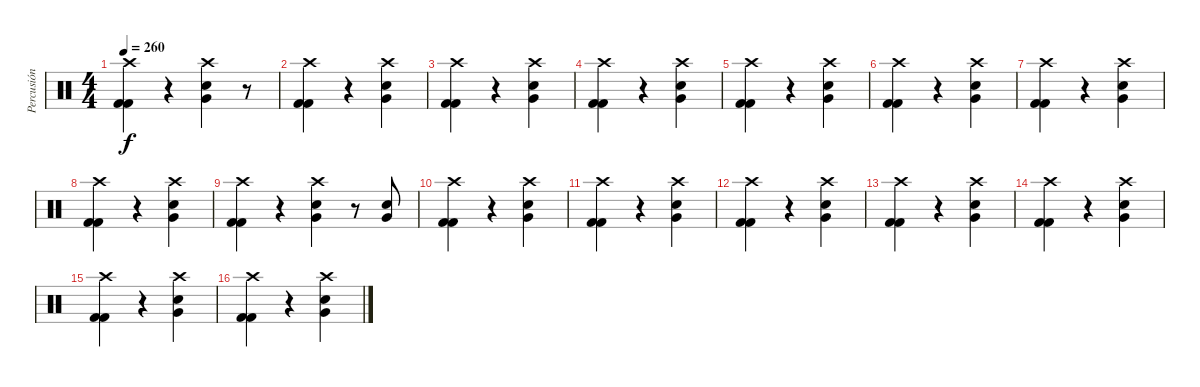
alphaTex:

\track ("Percusión" "Percusión") {instrument percussion}
\staff {score}
\articulation defaults
\ts (4 4)
\tempo 260
\clef neutral
\ks c
("Kick (hit) 2" "Kick (hit) 2" "Crash high (hit)").4{dy f} r.4 ("Very Low Tom (hit)" "Electric Snare (hit)" "Crash high (hit)").4 r.8 |
("Kick (hit) 2" "Kick (hit) 2" "Crash high (hit)").4 r.4 ("Very Low Tom (hit)" "Electric Snare (hit)" "Crash high (hit)").4 |
("Kick (hit) 2" "Kick (hit) 2" "Crash high (hit)").4 r.4 ("Very Low Tom (hit)" "Electric Snare (hit)" "Crash high (hit)").4 |
("Kick (hit) 2" "Kick (hit) 2" "Crash high (hit)").4 r.4 ("Very Low Tom (hit)" "Electric Snare (hit)" "Crash high (hit)").4 |
("Kick (hit) 2" "Kick (hit) 2" "Crash high (hit)").4 r.4 ("Very Low Tom (hit)" "Electric Snare (hit)" "Crash high (hit)").4 |
("Kick (hit) 2" "Kick (hit) 2" "Crash high (hit)").4 r.4 ("Very Low Tom (hit)" "Electric Snare (hit)" "Crash high (hit)").4 |
("Kick (hit) 2" "Kick (hit) 2" "Crash high (hit)").4 r.4 ("Very Low Tom (hit)" "Electric Snare (hit)" "Crash high (hit)").4 |
("Kick (hit) 2" "Kick (hit) 2" "Crash high (hit)").4 r.4 ("Very Low Tom (hit)" "Electric Snare (hit)" "Crash high (hit)").4 |
("Kick (hit) 2" "Kick (hit) 2" "Crash high (hit)").4 r.4 ("Very Low Tom (hit)" "Electric Snare (hit)" "Crash high (hit)").4 r.8 ("Very Low Tom (hit)" "Electric Snare (hit)").8 |
("Kick (hit) 2" "Kick (hit) 2" "Crash high (hit)").4 r.4 ("Very Low Tom (hit)" "Electric Snare (hit)" "Crash high (hit)").4 |
("Kick (hit) 2" "Kick (hit) 2" "Crash high (hit)").4 r.4 ("Very Low Tom (hit)" "Electric Snare (hit)" "Crash high (hit)").4 |
("Kick (hit) 2" "Kick (hit) 2" "Crash high (hit)").4 r.4 ("Very Low Tom (hit)" "Electric Snare (hit)" "Crash high (hit)").4 |
("Kick (hit) 2" "Kick (hit) 2" "Crash high (hit)").4 r.4 ("Very Low Tom (hit)" "Electric Snare (hit)" "Crash high (hit)").4 |
("Kick (hit) 2" "Kick (hit) 2" "Crash high (hit)").4 r.4 ("Very Low Tom (hit)" "Electric Snare (hit)" "Crash high (hit)").4 |
("Kick (hit) 2" "Kick (hit) 2" "Crash high (hit)").4 r.4 ("Very Low Tom (hit)" "Electric Snare (hit)" "Crash high (hit)").4 |
("Kick (hit) 2" "Kick (hit) 2" "Crash high (hit)").4 r.4 ("Very Low Tom (hit)" "Electric Snare (hit)" "Crash high (hit)").4
